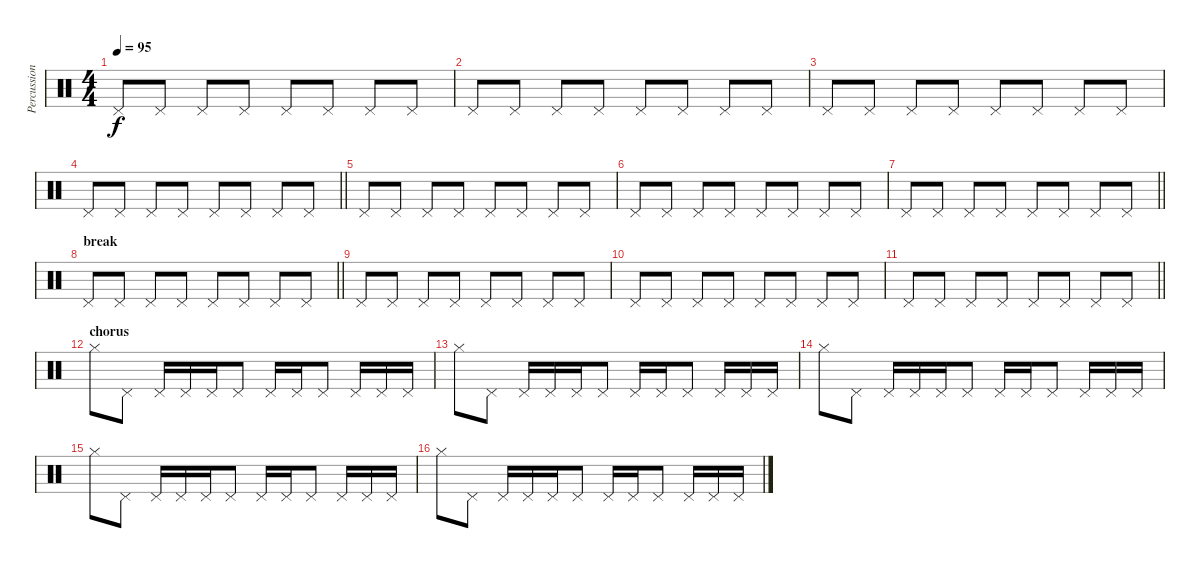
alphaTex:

\track ("Percussion" "Percussion") {instrument percussion}
\staff {score}
\articulation defaults
\ts (4 4)
\tempo 95
\clef neutral
\ks c "Pedal Hi-Hat (hit)".8{dy f} "Pedal Hi-Hat (hit)".8 "Pedal Hi-Hat (hit)".8 "Pedal Hi-Hat (hit)".8 "Pedal Hi-Hat (hit)".8 "Pedal Hi-Hat (hit)".8 "Pedal Hi-Hat (hit)".8 "Pedal Hi-Hat (hit)".8
|
"Pedal Hi-Hat (hit)".8 "Pedal Hi-Hat (hit)".8 "Pedal Hi-Hat (hit)".8 "Pedal Hi-Hat (hit)".8 "Pedal Hi-Hat (hit)".8 "Pedal Hi-Hat (hit)".8 "Pedal Hi-Hat (hit)".8 "Pedal Hi-Hat (hit)".8 |
"Pedal Hi-Hat (hit)".8 "Pedal Hi-Hat (hit)".8 "Pedal Hi-Hat (hit)".8 "Pedal Hi-Hat (hit)".8 "Pedal Hi-Hat (hit)".8 "Pedal Hi-Hat (hit)".8 "Pedal Hi-Hat (hit)".8 "Pedal Hi-Hat (hit)".8 |
\barLineRight lightlight "Pedal Hi-Hat (hit)".8 "Pedal Hi-Hat (hit)".8 "Pedal Hi-Hat (hit)".8 "Pedal Hi-Hat (hit)".8 "Pedal Hi-Hat (hit)".8 "Pedal Hi-Hat (hit)".8 "Pedal Hi-Hat (hit)".8 "Pedal Hi-Hat (hit)".8
|
"Pedal Hi-Hat (hit)".8 "Pedal Hi-Hat (hit)".8 "Pedal Hi-Hat (hit)".8 "Pedal Hi-Hat (hit)".8 "Pedal Hi-Hat (hit)".8 "Pedal Hi-Hat (hit)".8 "Pedal Hi-Hat (hit)".8 "Pedal Hi-Hat (hit)".8 |
"Pedal Hi-Hat (hit)".8 "Pedal Hi-Hat (hit)".8 "Pedal Hi-Hat (hit)".8 "Pedal Hi-Hat (hit)".8 "Pedal Hi-Hat (hit)".8 "Pedal Hi-Hat (hit)".8 "Pedal Hi-Hat (hit)".8 "Pedal Hi-Hat (hit)".8 |
\barLineRight lightlight "Pedal Hi-Hat (hit)".8 "Pedal Hi-Hat (hit)".8 "Pedal Hi-Hat (hit)".8 "Pedal Hi-Hat (hit)".8 "Pedal Hi-Hat (hit)".8 "Pedal Hi-Hat (hit)".8 "Pedal Hi-Hat (hit)".8 "Pedal Hi-Hat (hit)".8
|
\section ("" "break")
\barLineRight lightlight "Pedal Hi-Hat (hit)".8 "Pedal Hi-Hat (hit)".8 "Pedal Hi-Hat (hit)".8 "Pedal Hi-Hat (hit)".8 "Pedal Hi-Hat (hit)".8 "Pedal Hi-Hat (hit)".8 "Pedal Hi-Hat (hit)".8 "Pedal Hi-Hat (hit)".8
|
"Pedal Hi-Hat (hit)".8 "Pedal Hi-Hat (hit)".8 "Pedal Hi-Hat (hit)".8 "Pedal Hi-Hat (hit)".8 "Pedal Hi-Hat (hit)".8 "Pedal Hi-Hat (hit)".8 "Pedal Hi-Hat (hit)".8 "Pedal Hi-Hat (hit)".8 |
"Pedal Hi-Hat (hit)".8 "Pedal Hi-Hat (hit)".8 "Pedal Hi-Hat (hit)".8 "Pedal Hi-Hat (hit)".8 "Pedal Hi-Hat (hit)".8 "Pedal Hi-Hat (hit)".8 "Pedal Hi-Hat (hit)".8 "Pedal Hi-Hat (hit)".8 |
\barLineRight lightlight "Pedal Hi-Hat (hit)".8 "Pedal Hi-Hat (hit)".8 "Pedal Hi-Hat (hit)".8 "Pedal Hi-Hat (hit)".8 "Pedal Hi-Hat (hit)".8 "Pedal Hi-Hat (hit)".8 "Pedal Hi-Hat (hit)".8 "Pedal Hi-Hat (hit)".8
|
\section ("" "chorus")
"Hi-Hat (closed)".8 "Pedal Hi-Hat (hit)".8 "Pedal Hi-Hat (hit)".16 "Pedal Hi-Hat (hit)".16 "Pedal Hi-Hat (hit)".16 "Pedal Hi-Hat (hit)".8 "Pedal Hi-Hat (hit)".16 "Pedal Hi-Hat (hit)".16 "Pedal Hi-Hat (hit)".8 "Pedal Hi-Hat (hit)".16 "Pedal Hi-Hat (hit)".16 "Pedal Hi-Hat (hit)".16 |
"Hi-Hat (closed)".8 "Pedal Hi-Hat (hit)".8 "Pedal Hi-Hat (hit)".16 "Pedal Hi-Hat (hit)".16 "Pedal Hi-Hat (hit)".16 "Pedal Hi-Hat (hit)".8 "Pedal Hi-Hat (hit)".16 "Pedal Hi-Hat (hit)".16 "Pedal Hi-Hat (hit)".8 "Pedal Hi-Hat (hit)".16 "Pedal Hi-Hat (hit)".16 "Pedal Hi-Hat (hit)".16 |
"Hi-Hat (closed)".8 "Pedal Hi-Hat (hit)".8 "Pedal Hi-Hat (hit)".16 "Pedal Hi-Hat (hit)".16 "Pedal Hi-Hat (hit)".16 "Pedal Hi-Hat (hit)".8 "Pedal Hi-Hat (hit)".16 "Pedal Hi-Hat (hit)".16 "Pedal Hi-Hat (hit)".8 "Pedal Hi-Hat (hit)".16 "Pedal Hi-Hat (hit)".16 "Pedal Hi-Hat (hit)".16 |
"Hi-Hat (closed)".8 "Pedal Hi-Hat (hit)".8 "Pedal Hi-Hat (hit)".16 "Pedal Hi-Hat (hit)".16 "Pedal Hi-Hat (hit)".16 "Pedal Hi-Hat (hit)".8 "Pedal Hi-Hat (hit)".16 "Pedal Hi-Hat (hit)".16 "Pedal Hi-Hat (hit)".8 "Pedal Hi-Hat (hit)".16 "Pedal Hi-Hat (hit)".16 "Pedal Hi-Hat (hit)".16 |
"Hi-Hat (closed)".8 "Pedal Hi-Hat (hit)".8 "Pedal Hi-Hat (hit)".16 "Pedal Hi-Hat (hit)".16 "Pedal Hi-Hat (hit)".16 "Pedal Hi-Hat (hit)".8 "Pedal Hi-Hat (hit)".16 "Pedal Hi-Hat (hit)".16 "Pedal Hi-Hat (hit)".8 "Pedal Hi-Hat (hit)".16 "Pedal Hi-Hat (hit)".16 "Pedal Hi-Hat (hit)".16
